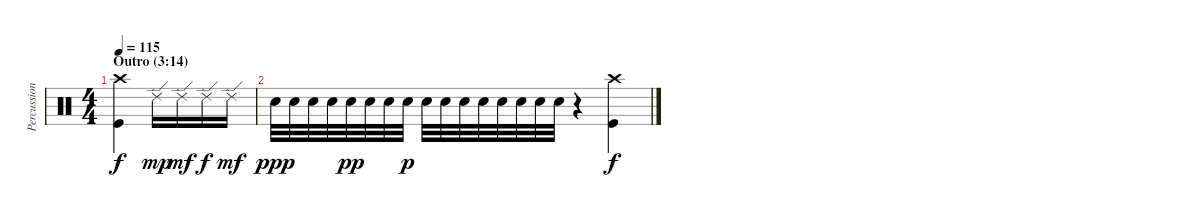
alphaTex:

\track ("Percussioni" "Percussion") {instrument percussion}
\staff {score}
\articulation defaults
\ts (4 4)
\section ("" "Outro (3:14)")
\tempo 115
\clef neutral
\ks c
("Crash high (hit)" "Kick (hit)").4{dy f} "Ride (edge) 2".16{dy mp} "Ride (edge) 2".16{dy mf} "Ride (edge) 2".16{dy f} "Ride (edge) 2".16{dy mf} |
"Electric Snare (hit)".32{dy ppp} "Electric Snare (hit)".32 "Electric Snare (hit)".32 "Electric Snare (hit)".32 "Electric Snare (hit)".32{dy pp} "Electric Snare (hit)".32 "Electric Snare (hit)".32 "Electric Snare (hit)".32{dy p} "Electric Snare (hit)".32 "Electric Snare (hit)".32 "Electric Snare (hit)".32 "Electric Snare (hit)".32 "Electric Snare (hit)".32 "Electric Snare (hit)".32 "Electric Snare (hit)".32 "Electric Snare (hit)".32 r.4 ("Crash high (hit)" "Kick (hit)").4{dy f}
